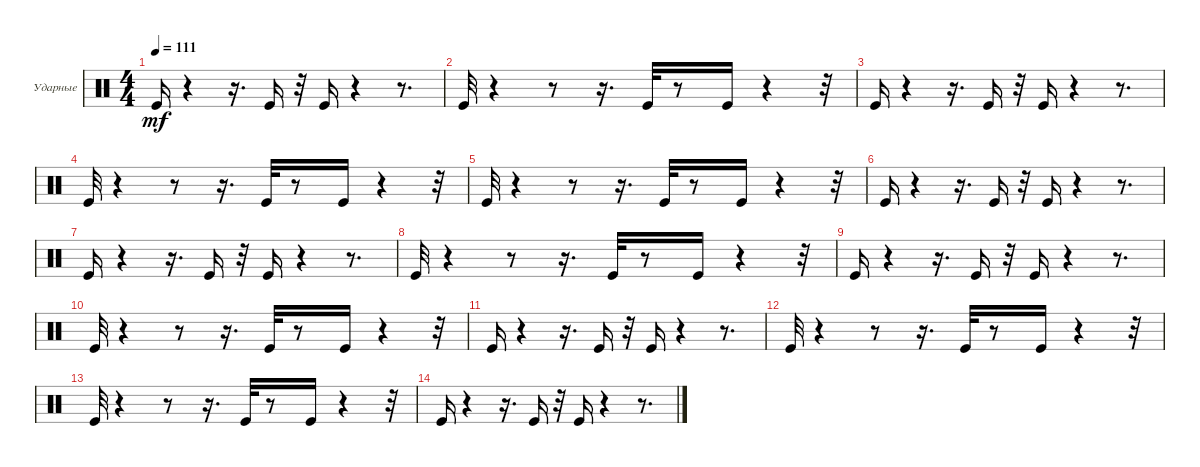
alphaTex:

\bracketExtendMode groupsimilarinstruments
\firstSystemTrackNameOrientation horizontal
\otherSystemsTrackNameOrientation horizontal
\track ("Ударные" "Ударные") {instrument percussion}
\staff {score}
\articulation defaults
\ts (4 4)
\tempo 111
\clef neutral
\ks c "Kick (hit)".16{dy mf}
r.4 r.16{d} "Kick (hit)".16 r.32 "Kick (hit)".16 r.4 r.8{d} |
"Kick (hit)".32 r.4 r.8 r.16{d} "Kick (hit)".32 r.8 "Kick (hit)".16 r.4 r.32 |
"Kick (hit)".16 r.4 r.16{d} "Kick (hit)".16 r.32 "Kick (hit)".16 r.4 r.8{d} |
"Kick (hit)".32 r.4 r.8 r.16{d} "Kick (hit)".32 r.8 "Kick (hit)".16 r.4 r.32 |
"Kick (hit)".32 r.4 r.8 r.16{d} "Kick (hit)".32 r.8 "Kick (hit)".16 r.4 r.32 |
"Kick (hit)".16 r.4 r.16{d} "Kick (hit)".16 r.32 "Kick (hit)".16 r.4 r.8{d} |
"Kick (hit)".16 r.4 r.16{d} "Kick (hit)".16 r.32 "Kick (hit)".16 r.4 r.8{d} |
"Kick (hit)".32 r.4 r.8 r.16{d} "Kick (hit)".32 r.8 "Kick (hit)".16 r.4 r.32 |
"Kick (hit)".16 r.4 r.16{d} "Kick (hit)".16 r.32 "Kick (hit)".16 r.4 r.8{d} |
"Kick (hit)".32 r.4 r.8 r.16{d} "Kick (hit)".32 r.8 "Kick (hit)".16 r.4 r.32 |
"Kick (hit)".16 r.4 r.16{d} "Kick (hit)".16 r.32 "Kick (hit)".16 r.4 r.8{d} |
"Kick (hit)".32 r.4 r.8 r.16{d} "Kick (hit)".32 r.8 "Kick (hit)".16 r.4 r.32 |
"Kick (hit)".32 r.4 r.8 r.16{d} "Kick (hit)".32 r.8 "Kick (hit)".16 r.4 r.32 |
"Kick (hit)".16 r.4 r.16{d} "Kick (hit)".16 r.32 "Kick (hit)".16 r.4 r.8{d}
